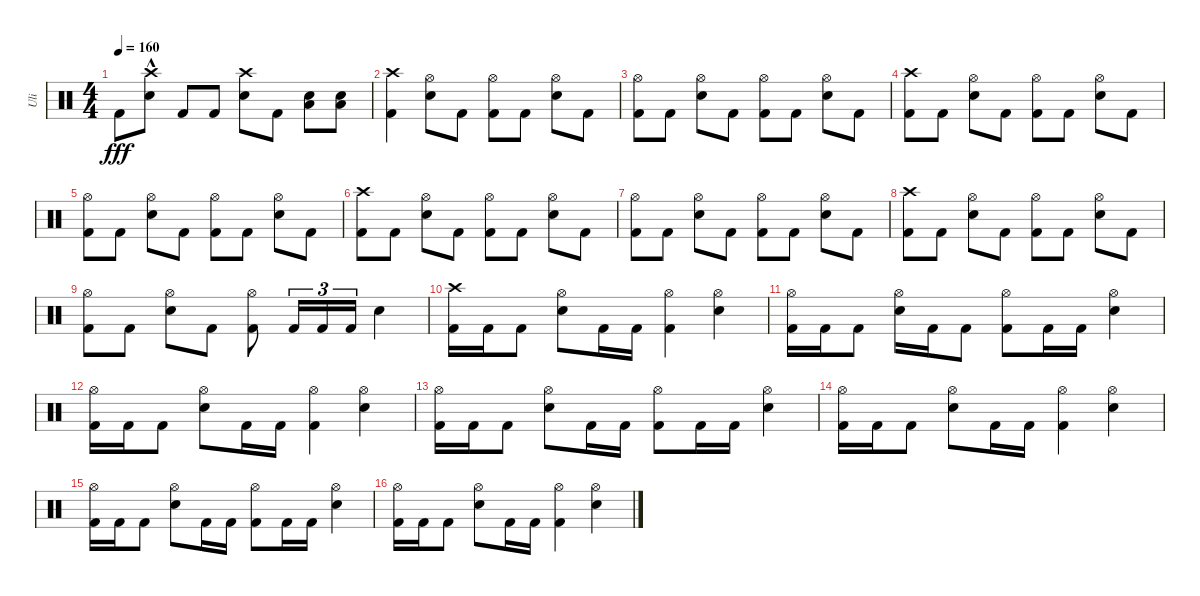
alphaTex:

\track ("Uli" "Uli") {instrument percussion}
\staff {score}
\articulation defaults
\ts (4 4)
\tempo 160
\clef neutral
\ks c "Kick (hit) 2".8{dy fff}
("Electric Snare (hit)"{hac} "Crash high (hit)"{hac}).8 "Kick (hit) 2".8 "Kick (hit) 2".8 ("Electric Snare (hit)" "Crash high (hit)").8 "Kick (hit) 2".8 ("Electric Snare (hit)" "Low Floor Tom (hit)").8 ("Electric Snare (hit)" "Low Floor Tom (hit)").8 |
("Kick (hit) 2" "Crash high (hit)").4 ("Electric Snare (hit)" "Hi-Hat (open)").8 "Kick (hit) 2".8 ("Kick (hit) 2" "Hi-Hat (open)").8 "Kick (hit) 2".8 ("Electric Snare (hit)" "Hi-Hat (open)").8 "Kick (hit) 2".8 |
("Kick (hit) 2" "Hi-Hat (open)").8 "Kick (hit) 2".8 ("Electric Snare (hit)" "Hi-Hat (open)").8 "Kick (hit) 2".8 ("Kick (hit) 2" "Hi-Hat (open)").8 "Kick (hit) 2".8 ("Electric Snare (hit)" "Hi-Hat (open)").8 "Kick (hit) 2".8 |
("Crash high (hit)" "Kick (hit) 2").8 "Kick (hit) 2".8 ("Electric Snare (hit)" "Hi-Hat (open)").8 "Kick (hit) 2".8 ("Kick (hit) 2" "Hi-Hat (open)").8 "Kick (hit) 2".8 ("Electric Snare (hit)" "Hi-Hat (open)").8 "Kick (hit) 2".8 |
("Kick (hit) 2" "Hi-Hat (open)").8 "Kick (hit) 2".8 ("Electric Snare (hit)" "Hi-Hat (open)").8 "Kick (hit) 2".8 ("Kick (hit) 2" "Hi-Hat (open)").8 "Kick (hit) 2".8 ("Electric Snare (hit)" "Hi-Hat (open)").8 "Kick (hit) 2".8 |
("Crash high (hit)" "Kick (hit) 2").8 "Kick (hit) 2".8 ("Electric Snare (hit)" "Hi-Hat (open)").8 "Kick (hit) 2".8 ("Kick (hit) 2" "Hi-Hat (open)").8 "Kick (hit) 2".8 ("Electric Snare (hit)" "Hi-Hat (open)").8 "Kick (hit) 2".8 |
("Kick (hit) 2" "Hi-Hat (open)").8 "Kick (hit) 2".8 ("Electric Snare (hit)" "Hi-Hat (open)").8 "Kick (hit) 2".8 ("Kick (hit) 2" "Hi-Hat (open)").8 "Kick (hit) 2".8 ("Electric Snare (hit)" "Hi-Hat (open)").8 "Kick (hit) 2".8 |
("Crash high (hit)" "Kick (hit) 2").8 "Kick (hit) 2".8 ("Electric Snare (hit)" "Hi-Hat (open)").8 "Kick (hit) 2".8 ("Kick (hit) 2" "Hi-Hat (open)").8 "Kick (hit) 2".8 ("Electric Snare (hit)" "Hi-Hat (open)").8 "Kick (hit) 2".8 |
("Kick (hit) 2" "Hi-Hat (open)").8 "Kick (hit) 2".8 ("Electric Snare (hit)" "Hi-Hat (open)").8 "Kick (hit) 2".8 ("Kick (hit) 2" "Hi-Hat (open)").8 "Kick (hit) 2".16{tu (3 2)} "Kick (hit) 2".16{tu (3 2)} "Kick (hit) 2".16{tu (3 2)} "Electric Snare (hit)".4 |
("Crash high (hit)" "Kick (hit) 2").16 "Kick (hit) 2".16 "Kick (hit) 2".8 ("Electric Snare (hit)" "Hi-Hat (open)").8 "Kick (hit) 2".16 "Kick (hit) 2".16 ("Hi-Hat (open)" "Kick (hit) 2").4 ("Electric Snare (hit)" "Hi-Hat (open)").4 |
("Hi-Hat (open)" "Kick (hit) 2").16 "Kick (hit) 2".16 "Kick (hit) 2".8 ("Electric Snare (hit)" "Hi-Hat (open)").16 "Kick (hit) 2".16 "Kick (hit) 2".8 ("Kick (hit) 2" "Hi-Hat (open)").8 "Kick (hit) 2".16 "Kick (hit) 2".16 ("Electric Snare (hit)" "Hi-Hat (open)").4 |
("Kick (hit) 2" "Hi-Hat (open)").16 "Kick (hit) 2".16 "Kick (hit) 2".8 ("Electric Snare (hit)" "Hi-Hat (open)").8 "Kick (hit) 2".16 "Kick (hit) 2".16 ("Hi-Hat (open)" "Kick (hit) 2").4 ("Electric Snare (hit)" "Hi-Hat (open)").4 |
("Kick (hit) 2" "Hi-Hat (open)").16 "Kick (hit) 2".16 "Kick (hit) 2".8 ("Electric Snare (hit)" "Hi-Hat (open)").8 "Kick (hit) 2".16 "Kick (hit) 2".16 ("Hi-Hat (open)" "Kick (hit) 2").8 "Kick (hit) 2".16 "Kick (hit) 2".16 ("Electric Snare (hit)" "Hi-Hat (open)").4 |
("Kick (hit) 2" "Hi-Hat (open)").16 "Kick (hit) 2".16 "Kick (hit) 2".8 ("Electric Snare (hit)" "Hi-Hat (open)").8 "Kick (hit) 2".16 "Kick (hit) 2".16 ("Hi-Hat (open)" "Kick (hit) 2").4 ("Electric Snare (hit)" "Hi-Hat (open)").4 |
("Kick (hit) 2" "Hi-Hat (open)").16 "Kick (hit) 2".16 "Kick (hit) 2".8 ("Electric Snare (hit)" "Hi-Hat (open)").8 "Kick (hit) 2".16 "Kick (hit) 2".16 ("Hi-Hat (open)" "Kick (hit) 2").8 "Kick (hit) 2".16 "Kick (hit) 2".16 ("Electric Snare (hit)" "Hi-Hat (open)").4 |
("Kick (hit) 2" "Hi-Hat (open)").16 "Kick (hit) 2".16 "Kick (hit) 2".8 ("Electric Snare (hit)" "Hi-Hat (open)").8 "Kick (hit) 2".16 "Kick (hit) 2".16 ("Hi-Hat (open)" "Kick (hit) 2").4 ("Electric Snare (hit)" "Hi-Hat (open)").4
